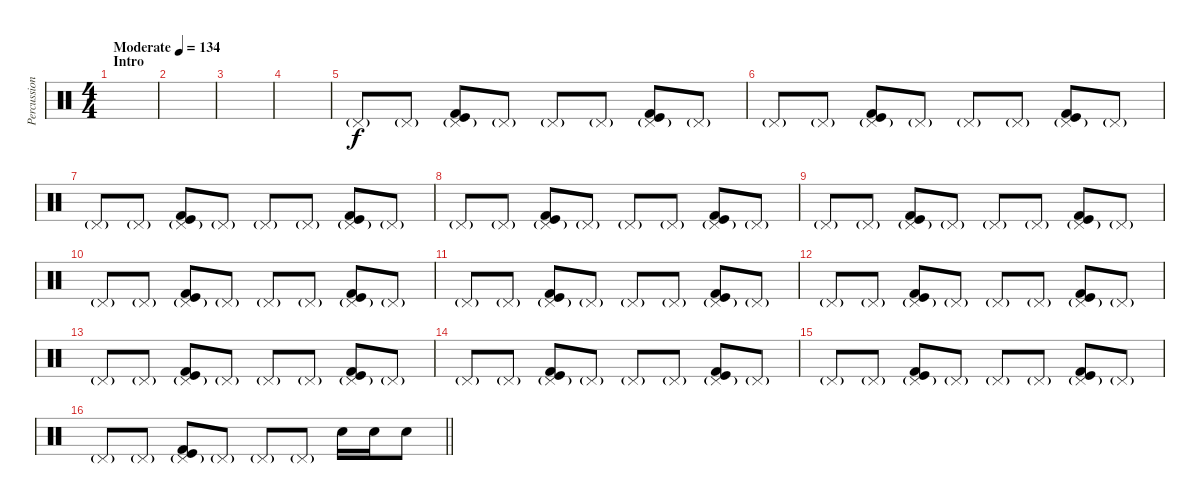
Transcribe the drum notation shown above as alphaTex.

\track ("Percussion" "Percussion") {instrument percussion}
\staff {score}
\articulation defaults
\ts (4 4)
\section ("" "Intro")
\tempo (134 "Moderate")
\clef neutral
\ks c
|
|
|
|
"Pedal Hi-Hat (hit)"{g}.8 "Pedal Hi-Hat (hit)"{g}.8 ("Pedal Hi-Hat (hit)"{g} "Kick (hit)" "Kick (hit) 2").8 "Pedal Hi-Hat (hit)"{g}.8 "Pedal Hi-Hat (hit)"{g}.8 "Pedal Hi-Hat (hit)"{g}.8 ("Pedal Hi-Hat (hit)"{g} "Kick (hit)" "Kick (hit) 2").8 "Pedal Hi-Hat (hit)"{g}.8 |
"Pedal Hi-Hat (hit)"{g}.8 "Pedal Hi-Hat (hit)"{g}.8 ("Pedal Hi-Hat (hit)"{g} "Kick (hit)" "Kick (hit) 2").8 "Pedal Hi-Hat (hit)"{g}.8 "Pedal Hi-Hat (hit)"{g}.8 "Pedal Hi-Hat (hit)"{g}.8 ("Pedal Hi-Hat (hit)"{g} "Kick (hit)" "Kick (hit) 2").8 "Pedal Hi-Hat (hit)"{g}.8 |
"Pedal Hi-Hat (hit)"{g}.8 "Pedal Hi-Hat (hit)"{g}.8 ("Pedal Hi-Hat (hit)"{g} "Kick (hit)" "Kick (hit) 2").8 "Pedal Hi-Hat (hit)"{g}.8 "Pedal Hi-Hat (hit)"{g}.8 "Pedal Hi-Hat (hit)"{g}.8 ("Pedal Hi-Hat (hit)"{g} "Kick (hit)" "Kick (hit) 2").8 "Pedal Hi-Hat (hit)"{g}.8 |
"Pedal Hi-Hat (hit)"{g}.8 "Pedal Hi-Hat (hit)"{g}.8 ("Pedal Hi-Hat (hit)"{g} "Kick (hit)" "Kick (hit) 2").8 "Pedal Hi-Hat (hit)"{g}.8 "Pedal Hi-Hat (hit)"{g}.8 "Pedal Hi-Hat (hit)"{g}.8 ("Pedal Hi-Hat (hit)"{g} "Kick (hit)" "Kick (hit) 2").8 "Pedal Hi-Hat (hit)"{g}.8 |
"Pedal Hi-Hat (hit)"{g}.8 "Pedal Hi-Hat (hit)"{g}.8 ("Pedal Hi-Hat (hit)"{g} "Kick (hit)" "Kick (hit) 2").8 "Pedal Hi-Hat (hit)"{g}.8 "Pedal Hi-Hat (hit)"{g}.8 "Pedal Hi-Hat (hit)"{g}.8 ("Pedal Hi-Hat (hit)"{g} "Kick (hit)" "Kick (hit) 2").8 "Pedal Hi-Hat (hit)"{g}.8 |
"Pedal Hi-Hat (hit)"{g}.8 "Pedal Hi-Hat (hit)"{g}.8 ("Pedal Hi-Hat (hit)"{g} "Kick (hit)" "Kick (hit) 2").8 "Pedal Hi-Hat (hit)"{g}.8 "Pedal Hi-Hat (hit)"{g}.8 "Pedal Hi-Hat (hit)"{g}.8 ("Pedal Hi-Hat (hit)"{g} "Kick (hit)" "Kick (hit) 2").8 "Pedal Hi-Hat (hit)"{g}.8 |
"Pedal Hi-Hat (hit)"{g}.8 "Pedal Hi-Hat (hit)"{g}.8 ("Pedal Hi-Hat (hit)"{g} "Kick (hit)" "Kick (hit) 2").8 "Pedal Hi-Hat (hit)"{g}.8 "Pedal Hi-Hat (hit)"{g}.8 "Pedal Hi-Hat (hit)"{g}.8 ("Pedal Hi-Hat (hit)"{g} "Kick (hit)" "Kick (hit) 2").8 "Pedal Hi-Hat (hit)"{g}.8 |
"Pedal Hi-Hat (hit)"{g}.8 "Pedal Hi-Hat (hit)"{g}.8 ("Pedal Hi-Hat (hit)"{g} "Kick (hit)" "Kick (hit) 2").8 "Pedal Hi-Hat (hit)"{g}.8 "Pedal Hi-Hat (hit)"{g}.8 "Pedal Hi-Hat (hit)"{g}.8 ("Pedal Hi-Hat (hit)"{g} "Kick (hit)" "Kick (hit) 2").8 "Pedal Hi-Hat (hit)"{g}.8 |
"Pedal Hi-Hat (hit)"{g}.8 "Pedal Hi-Hat (hit)"{g}.8 ("Pedal Hi-Hat (hit)"{g} "Kick (hit)" "Kick (hit) 2").8 "Pedal Hi-Hat (hit)"{g}.8 "Pedal Hi-Hat (hit)"{g}.8 "Pedal Hi-Hat (hit)"{g}.8 ("Pedal Hi-Hat (hit)"{g} "Kick (hit)" "Kick (hit) 2").8 "Pedal Hi-Hat (hit)"{g}.8 |
"Pedal Hi-Hat (hit)"{g}.8 "Pedal Hi-Hat (hit)"{g}.8 ("Pedal Hi-Hat (hit)"{g} "Kick (hit)" "Kick (hit) 2").8 "Pedal Hi-Hat (hit)"{g}.8 "Pedal Hi-Hat (hit)"{g}.8 "Pedal Hi-Hat (hit)"{g}.8 ("Pedal Hi-Hat (hit)"{g} "Kick (hit)" "Kick (hit) 2").8 "Pedal Hi-Hat (hit)"{g}.8 |
"Pedal Hi-Hat (hit)"{g}.8 "Pedal Hi-Hat (hit)"{g}.8 ("Pedal Hi-Hat (hit)"{g} "Kick (hit)" "Kick (hit) 2").8 "Pedal Hi-Hat (hit)"{g}.8 "Pedal Hi-Hat (hit)"{g}.8 "Pedal Hi-Hat (hit)"{g}.8 ("Pedal Hi-Hat (hit)"{g} "Kick (hit)" "Kick (hit) 2").8 "Pedal Hi-Hat (hit)"{g}.8 |
\barLineRight lightlight "Pedal Hi-Hat (hit)"{g}.8 "Pedal Hi-Hat (hit)"{g}.8
("Pedal Hi-Hat (hit)"{g} "Kick (hit)" "Kick (hit) 2").8 "Pedal Hi-Hat (hit)"{g}.8 "Pedal Hi-Hat (hit)"{g}.8 "Pedal Hi-Hat (hit)"{g}.8 "Snare (hit) 2".16{dy f} "Snare (hit) 2".16 "Snare (hit) 2".8
